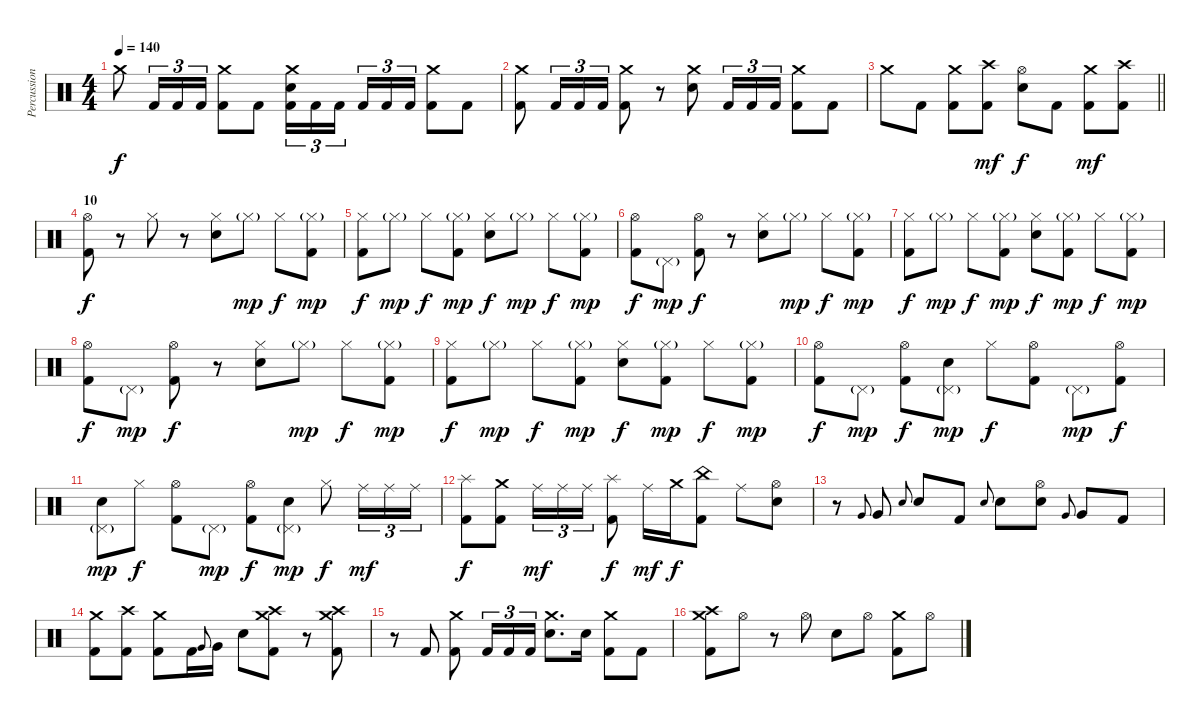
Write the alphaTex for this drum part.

\track ("Percussion" "Percussion") {instrument percussion}
\staff {score}
\articulation defaults
\ts (4 4)
\tempo 140
\clef neutral
\ks c "Crash medium (hit)".8{dy f} "Kick (hit) 2".16{tu (3 2)} "Kick (hit) 2".16{tu (3 2)} "Kick (hit) 2".16{tu (3 2)}
("Crash medium (hit)" "Kick (hit) 2").8 "Kick (hit) 2".8 ("Crash medium (hit)" "Snare (hit) 2" "Kick (hit) 2").16{tu (3 2)} "Kick (hit) 2".16{tu (3 2)} "Kick (hit) 2".16{tu (3 2) beam splitsecondary} "Kick (hit) 2".16{tu (3 2)} "Kick (hit) 2".16{tu (3 2)} "Kick (hit) 2".16{tu (3 2)} ("Crash medium (hit)" "Kick (hit) 2").8 "Kick (hit) 2".8 |
("Crash medium (hit)" "Kick (hit) 2").8 "Kick (hit) 2".16{tu (3 2)} "Kick (hit) 2".16{tu (3 2)} "Kick (hit) 2".16{tu (3 2)} ("Crash medium (hit)" "Kick (hit) 2").8 r.8 ("Crash medium (hit)" "Snare (hit) 2").8 "Kick (hit) 2".16{tu (3 2)} "Kick (hit) 2".16{tu (3 2)} "Kick (hit) 2".16{tu (3 2)} ("Crash medium (hit)" "Kick (hit) 2").8 "Kick (hit) 2".8 |
\barLineRight lightlight "Crash medium (hit)".8 "Kick (hit) 2".8
("Crash medium (hit)" "Kick (hit) 2").8 ("Crash high (hit)" "Kick (hit) 2").8{dy mf} ("Hi-Hat (open)" "Snare (hit) 2").8{dy f} "Kick (hit) 2".8 ("Crash medium (hit)" "Kick (hit) 2").8{dy mf} ("Crash high (hit)" "Kick (hit) 2").8 |
\section ("" "10")
("Hi-Hat (open)" "Kick (hit) 2").8{dy f} r.8 "Hi-Hat (closed)".8 r.8 ("Hi-Hat (closed)" "Snare (hit) 2").8 "Hi-Hat (closed)"{g}.8{dy mp} "Hi-Hat (closed)".8{dy f} ("Hi-Hat (closed)"{g} "Kick (hit) 2").8{dy mp} |
("Hi-Hat (closed)" "Kick (hit) 2").8{dy f} "Hi-Hat (closed)"{g}.8{dy mp} "Hi-Hat (closed)".8{dy f} ("Hi-Hat (closed)"{g} "Kick (hit) 2").8{dy mp} ("Hi-Hat (closed)" "Snare (hit) 2").8{dy f} "Hi-Hat (closed)"{g}.8{dy mp} "Hi-Hat (closed)".8{dy f} ("Hi-Hat (closed)"{g} "Kick (hit) 2").8{dy mp} |
("Hi-Hat (open)" "Kick (hit) 2").8{dy f} "Pedal Hi-Hat (hit)"{g}.8{dy mp} ("Hi-Hat (open)" "Kick (hit) 2").8{dy f} r.8 ("Hi-Hat (closed)" "Snare (hit) 2").8 "Hi-Hat (closed)"{g}.8{dy mp} "Hi-Hat (closed)".8{dy f} ("Hi-Hat (closed)"{g} "Kick (hit) 2").8{dy mp} |
("Hi-Hat (closed)" "Kick (hit) 2").8{dy f} "Hi-Hat (closed)"{g}.8{dy mp} "Hi-Hat (closed)".8{dy f} ("Hi-Hat (closed)"{g} "Kick (hit) 2").8{dy mp} ("Hi-Hat (closed)" "Snare (hit) 2").8{dy f} ("Hi-Hat (closed)"{g} "Kick (hit) 2").8{dy mp} "Hi-Hat (closed)".8{dy f} ("Hi-Hat (closed)"{g} "Kick (hit) 2").8{dy mp} |
("Hi-Hat (open)" "Kick (hit) 2").8{dy f} "Pedal Hi-Hat (hit)"{g}.8{dy mp} ("Hi-Hat (open)" "Kick (hit) 2").8{dy f} r.8 ("Hi-Hat (closed)" "Snare (hit) 2").8 "Hi-Hat (closed)"{g}.8{dy mp} "Hi-Hat (closed)".8{dy f} ("Hi-Hat (closed)"{g} "Kick (hit) 2").8{dy mp} |
("Hi-Hat (closed)" "Kick (hit) 2").8{dy f} "Hi-Hat (closed)"{g}.8{dy mp} "Hi-Hat (closed)".8{dy f} ("Hi-Hat (closed)"{g} "Kick (hit) 2").8{dy mp} ("Hi-Hat (closed)" "Snare (hit) 2").8{dy f} ("Hi-Hat (closed)"{g} "Kick (hit) 2").8{dy mp} "Hi-Hat (closed)".8{dy f} ("Hi-Hat (closed)"{g} "Kick (hit) 2").8{dy mp} |
("Hi-Hat (open)" "Kick (hit) 2").8{dy f} "Pedal Hi-Hat (hit)"{g}.8{dy mp} ("Hi-Hat (open)" "Kick (hit) 2").8{dy f} ("Pedal Hi-Hat (hit)"{g} "Snare (hit) 2").8{dy mp} "Hi-Hat (closed)".8{dy f} ("Hi-Hat (open)" "Kick (hit) 2").8 "Pedal Hi-Hat (hit)"{g}.8{dy mp} ("Hi-Hat (open)" "Kick (hit) 2").8{dy f} |
("Pedal Hi-Hat (hit)"{g} "Snare (hit) 2").8{dy mp} "Hi-Hat (closed)".8{dy f} ("Hi-Hat (open)" "Kick (hit) 2").8 "Pedal Hi-Hat (hit)"{g}.8{dy mp} ("Hi-Hat (open)" "Kick (hit) 2").8{dy f} ("Pedal Hi-Hat (hit)"{g} "Snare (hit) 2").8{dy mp} "Hi-Hat (closed)".8{dy f} "Ride (middle)".16{tu (3 2) dy mf} "Ride (middle)".16{tu (3 2)} "Ride (middle)".16{tu (3 2)} |
("Splash (hit)" "Kick (hit) 2").8{dy f} ("Crash medium (hit)" "Kick (hit) 2").8 "Ride (middle)".16{tu (3 2) dy mf} "Ride (middle)".16{tu (3 2)} "Ride (middle)".16{tu (3 2)} ("Splash (hit)" "Kick (hit) 2").8{dy f} "Ride (middle)".16{dy mf} "Crash medium (hit)".16{dy f} ("China (hit)" "Kick (hit) 2").8 "Ride (middle)".8 ("Hi-Hat (open)" "Snare (hit) 2").8 |
r.8 "Very Low Tom (hit)".8{gr onbeat} "Very Low Tom (hit)".8 "Snare (hit) 2".8{gr onbeat} "Snare (hit) 2".8 "Kick (hit) 2".8 "Snare (hit) 2".8{gr onbeat} "Snare (hit) 2".8 ("Hi-Hat (open)" "Snare (hit) 2").8 "Very Low Tom (hit)".8{gr onbeat} "Very Low Tom (hit)".8 "Kick (hit) 2".8 |
("Crash medium (hit)" "Kick (hit) 2").8 ("Crash high (hit)" "Kick (hit) 2").8 ("Crash medium (hit)" "Kick (hit) 2").8 "Kick (hit) 2".16 "Very Low Tom (hit)".8{gr onbeat} "Very Low Tom (hit)".16 "Snare (hit) 2".8 ("Crash medium (hit)" "Crash high (hit)" "Kick (hit) 2").8 r.8 ("Crash medium (hit)" "Crash high (hit)" "Kick (hit) 2").8 |
r.8 "Kick (hit) 2".8 ("Crash medium (hit)" "Kick (hit) 2").8 "Kick (hit) 2".16{tu (3 2)} "Kick (hit) 2".16{tu (3 2)} "Kick (hit) 2".16{tu (3 2)} ("Crash medium (hit)" "Snare (hit) 2").8{d} "Snare (hit) 2".16 ("Crash medium (hit)" "Kick (hit) 2").8 "Kick (hit) 2".8 |
("Crash medium (hit)" "Crash high (hit)" "Kick (hit) 2").8 "Hi-Hat (open)".8 r.8 "Hi-Hat (open)".8 "Snare (hit) 2".8 "Hi-Hat (open)".8 ("Crash medium (hit)" "Kick (hit) 2").8 "Hi-Hat (open)".8
